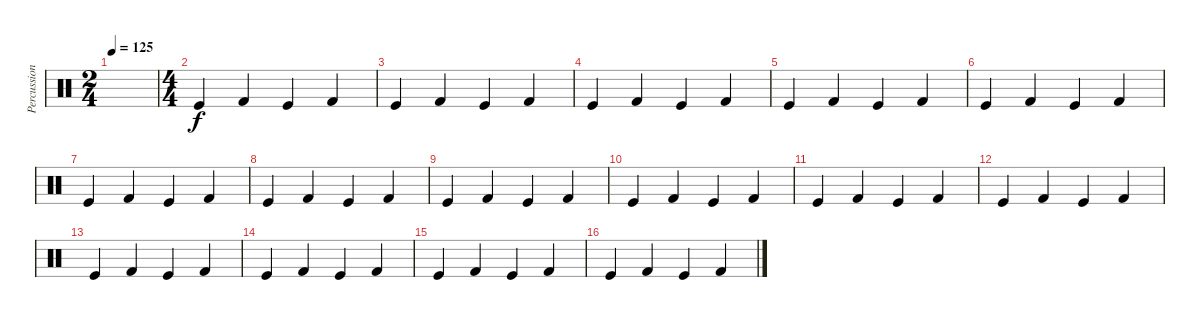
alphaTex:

\track ("Percussion" "Percussion") {instrument percussion}
\staff {score}
\articulation defaults
\ts (2 4)
\tempo 125
\clef neutral
\ks c
|
\ts (4 4)
"Kick (hit)".4 "Kick (hit) 2".4 "Kick (hit)".4 "Kick (hit) 2".4 |
"Kick (hit)".4 "Kick (hit) 2".4 "Kick (hit)".4 "Kick (hit) 2".4 |
"Kick (hit)".4 "Kick (hit) 2".4 "Kick (hit)".4 "Kick (hit) 2".4 |
"Kick (hit)".4 "Kick (hit) 2".4 "Kick (hit)".4 "Kick (hit) 2".4 |
"Kick (hit)".4 "Kick (hit) 2".4 "Kick (hit)".4 "Kick (hit) 2".4 |
"Kick (hit)".4 "Kick (hit) 2".4 "Kick (hit)".4 "Kick (hit) 2".4 |
"Kick (hit)".4 "Kick (hit) 2".4 "Kick (hit)".4 "Kick (hit) 2".4 |
"Kick (hit)".4 "Kick (hit) 2".4 "Kick (hit)".4 "Kick (hit) 2".4 |
"Kick (hit)".4 "Kick (hit) 2".4 "Kick (hit)".4 "Kick (hit) 2".4 |
"Kick (hit)".4 "Kick (hit) 2".4 "Kick (hit)".4 "Kick (hit) 2".4 |
"Kick (hit)".4 "Kick (hit) 2".4 "Kick (hit)".4 "Kick (hit) 2".4 |
"Kick (hit)".4 "Kick (hit) 2".4 "Kick (hit)".4 "Kick (hit) 2".4 |
"Kick (hit)".4 "Kick (hit) 2".4 "Kick (hit)".4 "Kick (hit) 2".4 |
"Kick (hit)".4 "Kick (hit) 2".4 "Kick (hit)".4 "Kick (hit) 2".4 |
"Kick (hit)".4 "Kick (hit) 2".4 "Kick (hit)".4 "Kick (hit) 2".4
